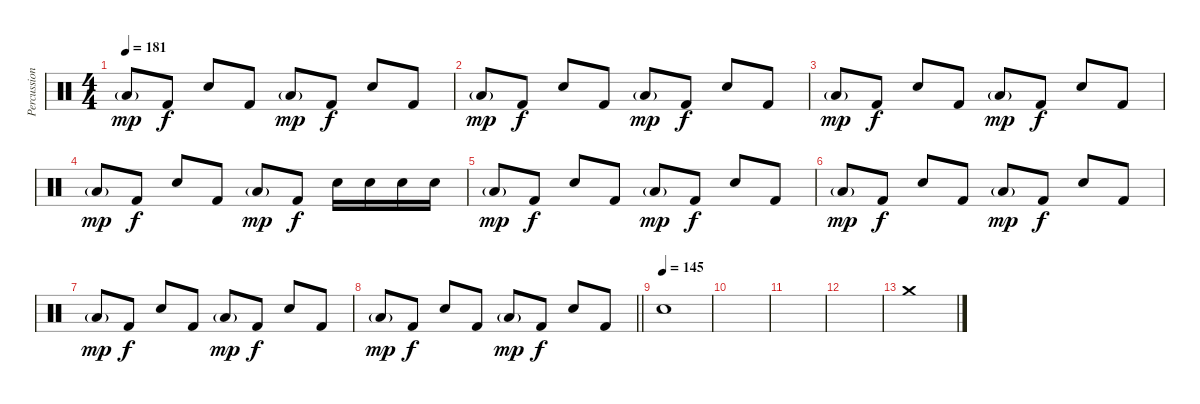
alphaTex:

\track ("Percussion" "Percussion") {instrument percussion}
\staff {score}
\articulation defaults
\ts (4 4)
\tempo 181
\clef neutral
\ks c "Low Tom (hit)"{g}.8{dy mp} "Kick (hit) 2".8{dy f} "Electric Snare (hit)".8 "Kick (hit) 2".8 "Low Tom (hit)"{g}.8{dy mp} "Kick (hit) 2".8{dy f} "Electric Snare (hit)".8 "Kick (hit) 2".8
|
"Low Tom (hit)"{g}.8{dy mp} "Kick (hit) 2".8{dy f} "Electric Snare (hit)".8 "Kick (hit) 2".8 "Low Tom (hit)"{g}.8{dy mp} "Kick (hit) 2".8{dy f} "Electric Snare (hit)".8 "Kick (hit) 2".8 |
"Low Tom (hit)"{g}.8{dy mp} "Kick (hit) 2".8{dy f} "Electric Snare (hit)".8 "Kick (hit) 2".8 "Low Tom (hit)"{g}.8{dy mp} "Kick (hit) 2".8{dy f} "Electric Snare (hit)".8 "Kick (hit) 2".8 |
"Low Tom (hit)"{g}.8{dy mp} "Kick (hit) 2".8{dy f} "Electric Snare (hit)".8 "Kick (hit) 2".8 "Low Tom (hit)"{g}.8{dy mp} "Kick (hit) 2".8{dy f} "Electric Snare (hit)".16 "Electric Snare (hit)".16 "Electric Snare (hit)".16 "Electric Snare (hit)".16 |
"Low Tom (hit)"{g}.8{dy mp} "Kick (hit) 2".8{dy f} "Electric Snare (hit)".8 "Kick (hit) 2".8 "Low Tom (hit)"{g}.8{dy mp} "Kick (hit) 2".8{dy f} "Electric Snare (hit)".8 "Kick (hit) 2".8 |
"Low Tom (hit)"{g}.8{dy mp} "Kick (hit) 2".8{dy f} "Electric Snare (hit)".8 "Kick (hit) 2".8 "Low Tom (hit)"{g}.8{dy mp} "Kick (hit) 2".8{dy f} "Electric Snare (hit)".8 "Kick (hit) 2".8 |
"Low Tom (hit)"{g}.8{dy mp} "Kick (hit) 2".8{dy f} "Electric Snare (hit)".8 "Kick (hit) 2".8 "Low Tom (hit)"{g}.8{dy mp} "Kick (hit) 2".8{dy f} "Electric Snare (hit)".8 "Kick (hit) 2".8 |
\barLineRight lightlight "Low Tom (hit)"{g}.8{dy mp} "Kick (hit) 2".8{dy f} "Electric Snare (hit)".8 "Kick (hit) 2".8 "Low Tom (hit)"{g}.8{dy mp} "Kick (hit) 2".8{dy f} "Electric Snare (hit)".8 "Kick (hit) 2".8
|
\section ("" "")
\tempo (145)
"Electric Snare (hit)".1 |
|
|
|
"Crash medium (hit)".1
